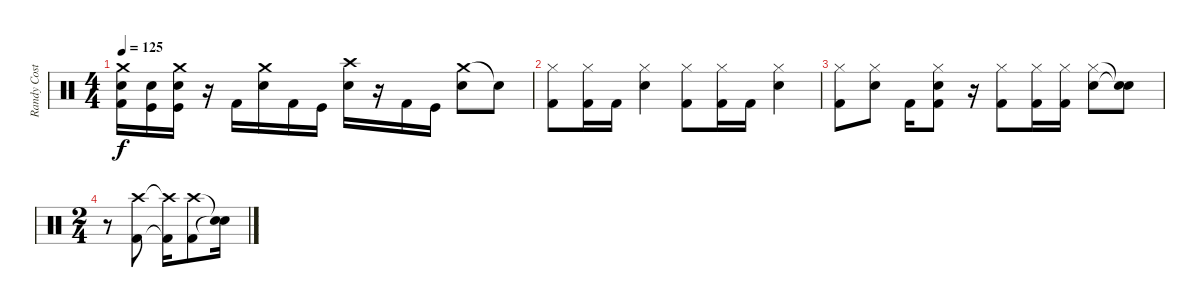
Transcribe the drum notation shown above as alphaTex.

\track ("Randy Costillo" "Randy Cost") {instrument percussion}
\staff {score}
\articulation defaults
\ts (4 4)
\tempo 125
\clef neutral
\ks c
("Crash medium (hit)" "Snare (hit) 2" "Kick (hit) 2").16{dy f} ("Snare (hit) 2" "Kick (hit)").16 ("Crash medium (hit)" "Snare (hit) 2" "Kick (hit)").16 r.16 "Kick (hit) 2".16 ("Crash medium (hit)" "Snare (hit) 2").16 "Kick (hit) 2".16 "Kick (hit)".16 ("Crash high (hit)" "Snare (hit) 2").16 r.16 "Kick (hit) 2".16 "Kick (hit)".16 ("Crash medium (hit)" "Snare (hit) 2").8 "Snare (hit)"{t}.8 |
("Hi-Hat (closed)" "Kick (hit) 2").8 ("Hi-Hat (closed)" "Kick (hit) 2").16 "Kick (hit) 2".16 ("Hi-Hat (closed)" "Snare (hit) 2").4 ("Hi-Hat (closed)" "Kick (hit) 2").8 ("Hi-Hat (closed)" "Kick (hit) 2").16 "Kick (hit) 2".16 ("Hi-Hat (closed)" "Snare (hit) 2").4 |
("Hi-Hat (closed)" "Kick (hit) 2").8 ("Hi-Hat (closed)" "Snare (hit) 2").8 "Kick (hit) 2".16 ("Hi-Hat (closed)" "Snare (hit) 2" "Kick (hit) 2").8 r.16 ("Hi-Hat (closed)" "Kick (hit) 2").8 ("Hi-Hat (closed)" "Kick (hit) 2").16 ("Hi-Hat (closed)" "Kick (hit) 2").16 ("Hi-Hat (closed)" "Snare (hit) 2").8 ("Snare (hit)"{t} "Snare (hit)"{t}).8 |
\ts (2 4)
r.8 ("Crash high (hit)" "Kick (hit) 2").8 ("Crash high (hit)"{t} "Kick (hit) 2"{t}).16 ("Crash high (hit)" "Kick (hit) 2").8 ("Snare (hit)"{t} "Snare (hit)"{t}).16
